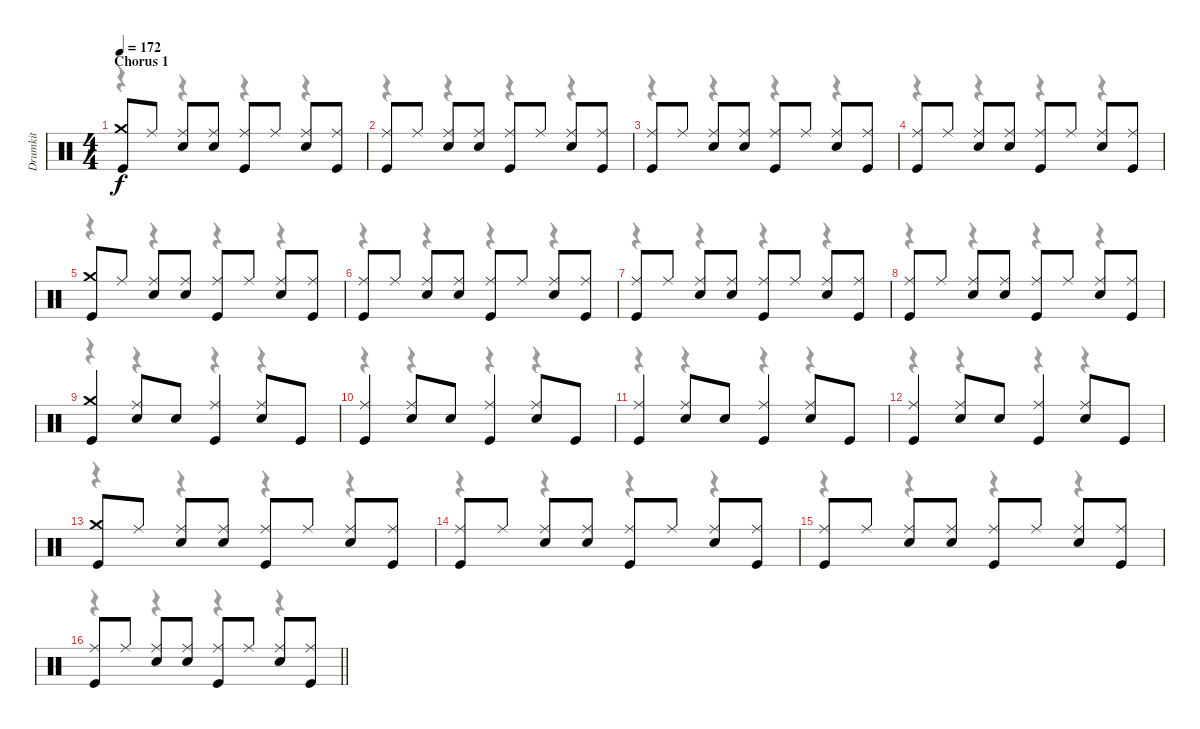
\track ("Drumkit" "Drumkit") {instrument percussion}
\staff {score}
\articulation defaults
\voice
\ts (4 4)
\section ("" "Chorus 1")
\tempo 172
\clef neutral
\ks c
("Crash medium (hit)" "Kick (hit)").8{dy f} "Ride (middle)".8 ("Ride (middle)" "Snare (hit) 2").8 ("Ride (middle)" "Snare (hit) 2").8 ("Ride (middle)" "Kick (hit)").8 "Ride (middle)".8 ("Ride (middle)" "Snare (hit) 2").8 ("Ride (middle)" "Kick (hit)").8 |
("Ride (middle)" "Kick (hit)").8 "Ride (middle)".8 ("Ride (middle)" "Snare (hit) 2").8 ("Ride (middle)" "Snare (hit) 2").8 ("Ride (middle)" "Kick (hit)").8 "Ride (middle)".8 ("Ride (middle)" "Snare (hit) 2").8 ("Ride (middle)" "Kick (hit)").8 |
("Ride (middle)" "Kick (hit)").8 "Ride (middle)".8 ("Ride (middle)" "Snare (hit) 2").8 ("Ride (middle)" "Snare (hit) 2").8 ("Ride (middle)" "Kick (hit)").8 "Ride (middle)".8 ("Ride (middle)" "Snare (hit) 2").8 ("Ride (middle)" "Kick (hit)").8 |
("Ride (middle)" "Kick (hit)").8 "Ride (middle)".8 ("Ride (middle)" "Snare (hit) 2").8 ("Ride (middle)" "Snare (hit) 2").8 ("Ride (middle)" "Kick (hit)").8 "Ride (middle)".8 ("Ride (middle)" "Snare (hit) 2").8 ("Ride (middle)" "Kick (hit)").8 |
("Crash medium (hit)" "Kick (hit)").8 "Ride (middle)".8 ("Ride (middle)" "Snare (hit) 2").8 ("Ride (middle)" "Snare (hit) 2").8 ("Ride (middle)" "Kick (hit)").8 "Ride (middle)".8 ("Ride (middle)" "Snare (hit) 2").8 ("Ride (middle)" "Kick (hit)").8 |
("Ride (middle)" "Kick (hit)").8 "Ride (middle)".8 ("Ride (middle)" "Snare (hit) 2").8 ("Ride (middle)" "Snare (hit) 2").8 ("Ride (middle)" "Kick (hit)").8 "Ride (middle)".8 ("Ride (middle)" "Snare (hit) 2").8 ("Ride (middle)" "Kick (hit)").8 |
("Ride (middle)" "Kick (hit)").8 "Ride (middle)".8 ("Ride (middle)" "Snare (hit) 2").8 ("Ride (middle)" "Snare (hit) 2").8 ("Ride (middle)" "Kick (hit)").8 "Ride (middle)".8 ("Ride (middle)" "Snare (hit) 2").8 ("Ride (middle)" "Kick (hit)").8 |
("Ride (middle)" "Kick (hit)").8 "Ride (middle)".8 ("Ride (middle)" "Snare (hit) 2").8 ("Ride (middle)" "Snare (hit) 2").8 ("Ride (middle)" "Kick (hit)").8 "Ride (middle)".8 ("Ride (middle)" "Snare (hit) 2").8 ("Ride (middle)" "Kick (hit)").8 |
("Crash medium (hit)" "Kick (hit)").4 ("Ride (middle)" "Snare (hit) 2").8 "Snare (hit) 2".8 ("Ride (middle)" "Kick (hit)").4 ("Ride (middle)" "Snare (hit) 2").8 "Kick (hit)".8 |
("Ride (middle)" "Kick (hit)").4 ("Ride (middle)" "Snare (hit) 2").8 "Snare (hit) 2".8 ("Ride (middle)" "Kick (hit)").4 ("Ride (middle)" "Snare (hit) 2").8 "Kick (hit)".8 |
("Ride (middle)" "Kick (hit)").4 ("Ride (middle)" "Snare (hit) 2").8 "Snare (hit) 2".8 ("Ride (middle)" "Kick (hit)").4 ("Ride (middle)" "Snare (hit) 2").8 "Kick (hit)".8 |
("Ride (middle)" "Kick (hit)").4 ("Ride (middle)" "Snare (hit) 2").8 "Snare (hit) 2".8 ("Ride (middle)" "Kick (hit)").4 ("Ride (middle)" "Snare (hit) 2").8 "Kick (hit)".8 |
("Crash medium (hit)" "Kick (hit)").8 "Ride (middle)".8 ("Ride (middle)" "Snare (hit) 2").8 ("Ride (middle)" "Snare (hit) 2").8 ("Ride (middle)" "Kick (hit)").8 "Ride (middle)".8 ("Ride (middle)" "Snare (hit) 2").8 ("Ride (middle)" "Kick (hit)").8 |
("Ride (middle)" "Kick (hit)").8 "Ride (middle)".8 ("Ride (middle)" "Snare (hit) 2").8 ("Ride (middle)" "Snare (hit) 2").8 ("Ride (middle)" "Kick (hit)").8 "Ride (middle)".8 ("Ride (middle)" "Snare (hit) 2").8 ("Ride (middle)" "Kick (hit)").8 |
("Ride (middle)" "Kick (hit)").8 "Ride (middle)".8 ("Ride (middle)" "Snare (hit) 2").8 ("Ride (middle)" "Snare (hit) 2").8 ("Ride (middle)" "Kick (hit)").8 "Ride (middle)".8 ("Ride (middle)" "Snare (hit) 2").8 ("Ride (middle)" "Kick (hit)").8 |
\barLineRight lightlight
("Ride (middle)" "Kick (hit)").8 "Ride (middle)".8 ("Ride (middle)" "Snare (hit) 2").8 ("Ride (middle)" "Snare (hit) 2").8 ("Ride (middle)" "Kick (hit)").8 "Ride (middle)".8 ("Ride (middle)" "Snare (hit) 2").8 ("Ride (middle)" "Kick (hit)").8
\voice
\clef neutral
\ottava regular
\simile none
\ks c
r.4{dy f} r.4 r.4 r.4 |
r.4 r.4 r.4 r.4 |
r.4 r.4 r.4 r.4 |
r.4 r.4 r.4 r.4 |
r.4 r.4 r.4 r.4 |
r.4 r.4 r.4 r.4 |
r.4 r.4 r.4 r.4 |
r.4 r.4 r.4 r.4 |
r.4 r.4 r.4 r.4 |
r.4 r.4 r.4 r.4 |
r.4 r.4 r.4 r.4 |
r.4 r.4 r.4 r.4 |
r.4 r.4 r.4 r.4 |
r.4 r.4 r.4 r.4 |
r.4 r.4 r.4 r.4 |
\barLineRight lightlight
r.4 r.4 r.4 r.4
